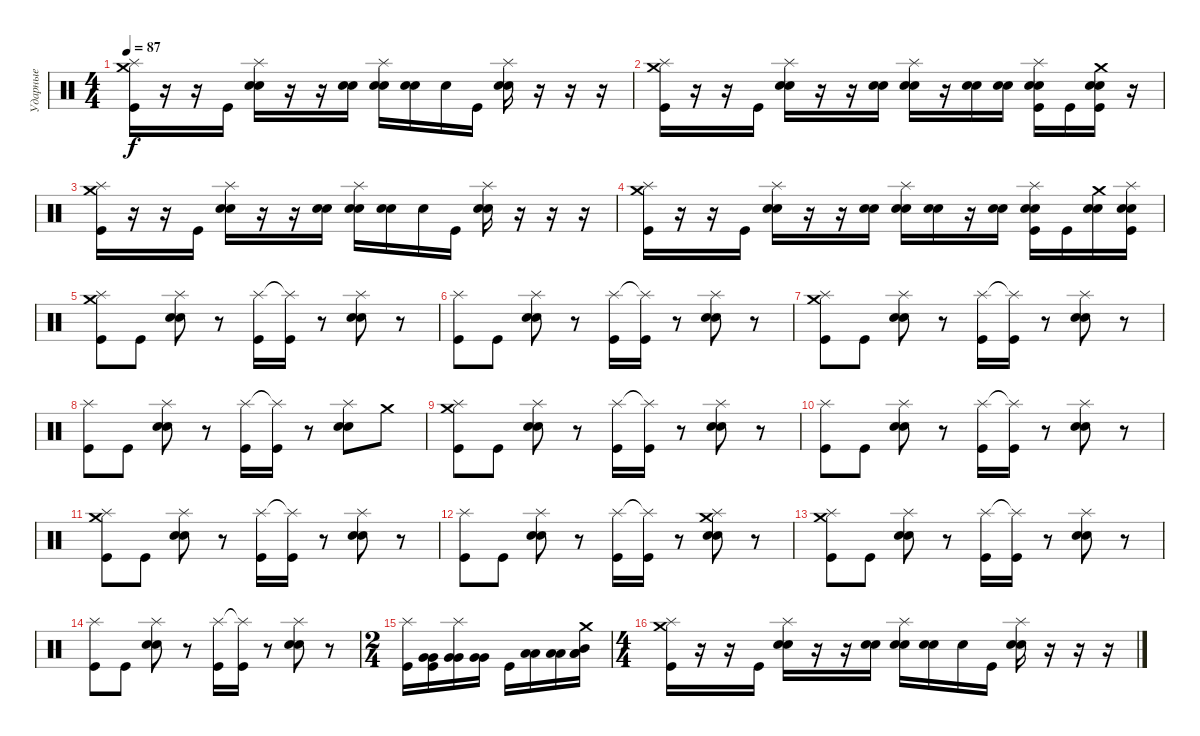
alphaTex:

\track ("Ударные" "Ударные") {instrument percussion}
\staff {score}
\articulation defaults
\ts (4 4)
\tempo 87
\clef neutral
\ks c
("Splash (hit)" "Crash medium (hit)" "Kick (hit)").16{dy f} r.16 r.16 "Kick (hit)".16 ("Splash (hit)" "Electric Snare (hit)" "Electric Snare (hit)").16 r.16 r.16 ("Electric Snare (hit)" "Electric Snare (hit)").16 ("Splash (hit)" "Electric Snare (hit)" "Electric Snare (hit)").16 ("Electric Snare (hit)" "Electric Snare (hit)").16 "Electric Snare (hit)".16 "Kick (hit)".16 ("Splash (hit)" "Electric Snare (hit)" "Electric Snare (hit)").16 r.16 r.16 r.16 |
("Splash (hit)" "Crash medium (hit)" "Kick (hit)").16 r.16 r.16 "Kick (hit)".16 ("Splash (hit)" "Electric Snare (hit)" "Electric Snare (hit)").16 r.16 r.16 ("Electric Snare (hit)" "Electric Snare (hit)").16 ("Splash (hit)" "Electric Snare (hit)" "Electric Snare (hit)").16 r.16 ("Electric Snare (hit)" "Electric Snare (hit)").16 ("Electric Snare (hit)" "Electric Snare (hit)").16 ("Splash (hit)" "Electric Snare (hit)" "Electric Snare (hit)" "Kick (hit)").16 "Kick (hit)".16 ("Crash medium (hit)" "Electric Snare (hit)" "Electric Snare (hit)" "Kick (hit)").16 r.16 |
("Splash (hit)" "Crash medium (hit)" "Kick (hit)").16 r.16 r.16 "Kick (hit)".16 ("Splash (hit)" "Electric Snare (hit)" "Electric Snare (hit)").16 r.16 r.16 ("Electric Snare (hit)" "Electric Snare (hit)").16 ("Splash (hit)" "Electric Snare (hit)" "Electric Snare (hit)").16 ("Electric Snare (hit)" "Electric Snare (hit)").16 "Electric Snare (hit)".16 "Kick (hit)".16 ("Splash (hit)" "Electric Snare (hit)" "Electric Snare (hit)").16 r.16 r.16 r.16 |
("Splash (hit)" "Crash medium (hit)" "Kick (hit)").16 r.16 r.16 "Kick (hit)".16 ("Splash (hit)" "Electric Snare (hit)" "Electric Snare (hit)").16 r.16 r.16 ("Electric Snare (hit)" "Electric Snare (hit)").16 ("Splash (hit)" "Electric Snare (hit)" "Electric Snare (hit)").16 ("Electric Snare (hit)" "Electric Snare (hit)").16 r.16 ("Electric Snare (hit)" "Electric Snare (hit)").16 ("Splash (hit)" "Electric Snare (hit)" "Electric Snare (hit)" "Kick (hit)").16 "Kick (hit)".16 ("Crash medium (hit)" "Electric Snare (hit)" "Electric Snare (hit)").16 ("Splash (hit)" "Electric Snare (hit)" "Electric Snare (hit)" "Kick (hit)").16 |
("Splash (hit)" "Crash medium (hit)" "Kick (hit)").8 "Kick (hit)".8 ("Splash (hit)" "Electric Snare (hit)" "Electric Snare (hit)").8 r.8 ("Splash (hit)" "Kick (hit)").16 ("Splash (hit)"{t} "Kick (hit)").16 r.8 ("Splash (hit)" "Electric Snare (hit)" "Electric Snare (hit)").8 r.8 |
("Splash (hit)" "Kick (hit)").8 "Kick (hit)".8 ("Splash (hit)" "Electric Snare (hit)" "Electric Snare (hit)").8 r.8 ("Splash (hit)" "Kick (hit)").16 ("Splash (hit)"{t} "Kick (hit)").16 r.8 ("Splash (hit)" "Electric Snare (hit)" "Electric Snare (hit)").8 r.8 |
("Splash (hit)" "Crash medium (hit)" "Kick (hit)").8 "Kick (hit)".8 ("Splash (hit)" "Electric Snare (hit)" "Electric Snare (hit)").8 r.8 ("Splash (hit)" "Kick (hit)").16 ("Splash (hit)"{t} "Kick (hit)").16 r.8 ("Splash (hit)" "Electric Snare (hit)" "Electric Snare (hit)").8 r.8 |
("Splash (hit)" "Kick (hit)").8 "Kick (hit)".8 ("Splash (hit)" "Electric Snare (hit)" "Electric Snare (hit)").8 r.8 ("Splash (hit)" "Kick (hit)").16 ("Splash (hit)"{t} "Kick (hit)").16 r.8 ("Splash (hit)" "Electric Snare (hit)" "Electric Snare (hit)").8 "Crash medium (hit)".8 |
("Splash (hit)" "Crash medium (hit)" "Kick (hit)").8 "Kick (hit)".8 ("Splash (hit)" "Electric Snare (hit)" "Electric Snare (hit)").8 r.8 ("Splash (hit)" "Kick (hit)").16 ("Splash (hit)"{t} "Kick (hit)").16 r.8 ("Splash (hit)" "Electric Snare (hit)" "Electric Snare (hit)").8 r.8 |
("Splash (hit)" "Kick (hit)").8 "Kick (hit)".8 ("Splash (hit)" "Electric Snare (hit)" "Electric Snare (hit)").8 r.8 ("Splash (hit)" "Kick (hit)").16 ("Splash (hit)"{t} "Kick (hit)").16 r.8 ("Splash (hit)" "Electric Snare (hit)" "Electric Snare (hit)").8 r.8 |
("Splash (hit)" "Crash medium (hit)" "Kick (hit)").8 "Kick (hit)".8 ("Splash (hit)" "Electric Snare (hit)" "Electric Snare (hit)").8 r.8 ("Splash (hit)" "Kick (hit)").16 ("Splash (hit)"{t} "Kick (hit)").16 r.8 ("Splash (hit)" "Electric Snare (hit)" "Electric Snare (hit)").8 r.8 |
("Splash (hit)" "Kick (hit)").8 "Kick (hit)".8 ("Splash (hit)" "Electric Snare (hit)" "Electric Snare (hit)").8 r.8 ("Splash (hit)" "Kick (hit)").16 ("Splash (hit)"{t} "Kick (hit)").16 r.8 ("Splash (hit)" "Crash medium (hit)" "Electric Snare (hit)" "Electric Snare (hit)").8 r.8 |
("Splash (hit)" "Crash medium (hit)" "Kick (hit)").8 "Kick (hit)".8 ("Splash (hit)" "Electric Snare (hit)" "Electric Snare (hit)").8 r.8 ("Splash (hit)" "Kick (hit)").16 ("Splash (hit)"{t} "Kick (hit)").16 r.8 ("Splash (hit)" "Electric Snare (hit)" "Electric Snare (hit)").8 r.8 |
("Splash (hit)" "Kick (hit)").8 "Kick (hit)".8 ("Splash (hit)" "Electric Snare (hit)" "Electric Snare (hit)").8 r.8 ("Splash (hit)" "Kick (hit)").16 ("Splash (hit)"{t} "Kick (hit)").16 r.8 ("Splash (hit)" "Electric Snare (hit)" "Electric Snare (hit)").8 r.8 |
\ts (2 4)
("Splash (hit)" "Kick (hit)").16 ("Very Low Tom (hit)" "Very Low Tom (hit)" "Kick (hit)").16 ("Splash (hit)" "Very Low Tom (hit)" "Very Low Tom (hit)").16 ("Very Low Tom (hit)" "Very Low Tom (hit)").16 "Kick (hit)".16 ("Low Floor Tom (hit)" "Low Floor Tom (hit)").16 ("Low Floor Tom (hit)" "Low Floor Tom (hit)").16 ("Crash medium (hit)" "Mid Tom (hit)" "Low Floor Tom (hit)" "Low Floor Tom (hit)").16 |
\ts (4 4)
("Splash (hit)" "Crash medium (hit)" "Kick (hit)").16 r.16 r.16 "Kick (hit)".16 ("Splash (hit)" "Electric Snare (hit)" "Electric Snare (hit)").16 r.16 r.16 ("Electric Snare (hit)" "Electric Snare (hit)").16 ("Splash (hit)" "Electric Snare (hit)" "Electric Snare (hit)").16 ("Electric Snare (hit)" "Electric Snare (hit)").16 "Electric Snare (hit)".16 "Kick (hit)".16 ("Splash (hit)" "Electric Snare (hit)" "Electric Snare (hit)").16 r.16 r.16 r.16
